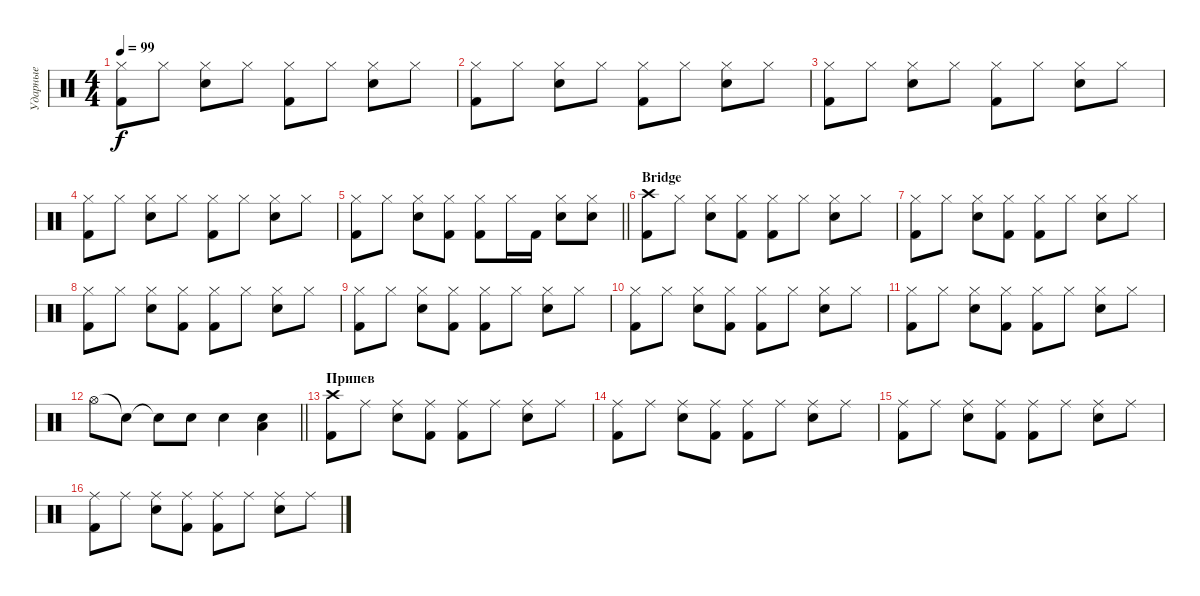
\track ("Ударные" "Ударные") {instrument percussion}
\staff
\articulation defaults
\ts (4 4)
\tempo 99
\clef neutral
\ks c
("Hi-Hat (closed)" "Kick (hit) 2").8{dy f} "Hi-Hat (closed)".8 ("Hi-Hat (closed)" "Electric Snare (hit)").8 "Hi-Hat (closed)".8 ("Hi-Hat (closed)" "Kick (hit) 2").8 "Hi-Hat (closed)".8 ("Hi-Hat (closed)" "Electric Snare (hit)").8 "Hi-Hat (closed)".8 |
("Hi-Hat (closed)" "Kick (hit) 2").8 "Hi-Hat (closed)".8 ("Hi-Hat (closed)" "Electric Snare (hit)").8 "Hi-Hat (closed)".8 ("Hi-Hat (closed)" "Kick (hit) 2").8 "Hi-Hat (closed)".8 ("Hi-Hat (closed)" "Electric Snare (hit)").8 "Hi-Hat (closed)".8 |
("Hi-Hat (closed)" "Kick (hit) 2").8 "Hi-Hat (closed)".8 ("Hi-Hat (closed)" "Electric Snare (hit)").8 "Hi-Hat (closed)".8 ("Hi-Hat (closed)" "Kick (hit) 2").8 "Hi-Hat (closed)".8 ("Hi-Hat (closed)" "Electric Snare (hit)").8 "Hi-Hat (closed)".8 |
("Hi-Hat (closed)" "Kick (hit) 2").8 "Hi-Hat (closed)".8 ("Hi-Hat (closed)" "Electric Snare (hit)").8 "Hi-Hat (closed)".8 ("Hi-Hat (closed)" "Kick (hit) 2").8 "Hi-Hat (closed)".8 ("Hi-Hat (closed)" "Electric Snare (hit)").8 "Hi-Hat (closed)".8 |
\barLineRight lightlight
("Hi-Hat (closed)" "Kick (hit) 2").8 "Hi-Hat (closed)".8 ("Hi-Hat (closed)" "Electric Snare (hit)").8 ("Hi-Hat (closed)" "Kick (hit) 2").8 ("Hi-Hat (closed)" "Kick (hit) 2").8 "Hi-Hat (closed)".16 "Kick (hit) 2".16 ("Hi-Hat (closed)" "Electric Snare (hit)").8 ("Hi-Hat (closed)" "Electric Snare (hit)").8 |
\section ("" "Bridge")
("Crash high (hit)" "Kick (hit) 2").8 "Hi-Hat (closed)".8 ("Hi-Hat (closed)" "Electric Snare (hit)").8 ("Hi-Hat (closed)" "Kick (hit) 2").8 ("Hi-Hat (closed)" "Kick (hit) 2").8 "Hi-Hat (closed)".8 ("Hi-Hat (closed)" "Electric Snare (hit)").8 "Hi-Hat (closed)".8 |
("Hi-Hat (closed)" "Kick (hit) 2").8 "Hi-Hat (closed)".8 ("Hi-Hat (closed)" "Electric Snare (hit)").8 ("Hi-Hat (closed)" "Kick (hit) 2").8 ("Hi-Hat (closed)" "Kick (hit) 2").8 "Hi-Hat (closed)".8 ("Hi-Hat (closed)" "Electric Snare (hit)").8 "Hi-Hat (closed)".8 |
("Hi-Hat (closed)" "Kick (hit) 2").8 "Hi-Hat (closed)".8 ("Hi-Hat (closed)" "Electric Snare (hit)").8 ("Hi-Hat (closed)" "Kick (hit) 2").8 ("Hi-Hat (closed)" "Kick (hit) 2").8 "Hi-Hat (closed)".8 ("Hi-Hat (closed)" "Electric Snare (hit)").8 "Hi-Hat (closed)".8 |
("Hi-Hat (closed)" "Kick (hit) 2").8 "Hi-Hat (closed)".8 ("Hi-Hat (closed)" "Electric Snare (hit)").8 ("Hi-Hat (closed)" "Kick (hit) 2").8 ("Hi-Hat (closed)" "Kick (hit) 2").8 "Hi-Hat (closed)".8 ("Hi-Hat (closed)" "Electric Snare (hit)").8 "Hi-Hat (closed)".8 |
("Hi-Hat (closed)" "Kick (hit) 2").8 "Hi-Hat (closed)".8 ("Hi-Hat (closed)" "Electric Snare (hit)").8 ("Hi-Hat (closed)" "Kick (hit) 2").8 ("Hi-Hat (closed)" "Kick (hit) 2").8 "Hi-Hat (closed)".8 ("Hi-Hat (closed)" "Electric Snare (hit)").8 "Hi-Hat (closed)".8 |
("Hi-Hat (closed)" "Kick (hit) 2").8 "Hi-Hat (closed)".8 ("Hi-Hat (closed)" "Electric Snare (hit)").8 ("Hi-Hat (closed)" "Kick (hit) 2").8 ("Hi-Hat (closed)" "Kick (hit) 2").8 "Hi-Hat (closed)".8 ("Hi-Hat (closed)" "Electric Snare (hit)").8 "Hi-Hat (closed)".8 |
\barLineRight lightlight "Hi-Hat (open)".8 "Snare (hit)"{t}.8 "Snare (hit)"{t}.8 "Electric Snare (hit)".8 "Electric Snare (hit)".4
("Electric Snare (hit)" "Low Tom (hit)").4 |
\section ("" "Припев")
("Crash high (hit)" "Kick (hit) 2").8 "Ride (middle)".8 ("Ride (middle)" "Electric Snare (hit)").8 ("Ride (middle)" "Kick (hit) 2").8 ("Ride (middle)" "Kick (hit) 2").8 "Ride (middle)".8 ("Ride (middle)" "Electric Snare (hit)").8 "Ride (middle)".8 |
("Ride (middle)" "Kick (hit) 2").8 "Ride (middle)".8 ("Ride (middle)" "Electric Snare (hit)").8 ("Ride (middle)" "Kick (hit) 2").8 ("Ride (middle)" "Kick (hit) 2").8 "Ride (middle)".8 ("Ride (middle)" "Electric Snare (hit)").8 "Ride (middle)".8 |
("Ride (middle)" "Kick (hit) 2").8 "Ride (middle)".8 ("Ride (middle)" "Electric Snare (hit)").8 ("Ride (middle)" "Kick (hit) 2").8 ("Ride (middle)" "Kick (hit) 2").8 "Ride (middle)".8 ("Ride (middle)" "Electric Snare (hit)").8 "Ride (middle)".8 |
("Ride (middle)" "Kick (hit) 2").8 "Ride (middle)".8 ("Ride (middle)" "Electric Snare (hit)").8 ("Ride (middle)" "Kick (hit) 2").8 ("Ride (middle)" "Kick (hit) 2").8 "Ride (middle)".8 ("Ride (middle)" "Electric Snare (hit)").8 "Ride (middle)".8
